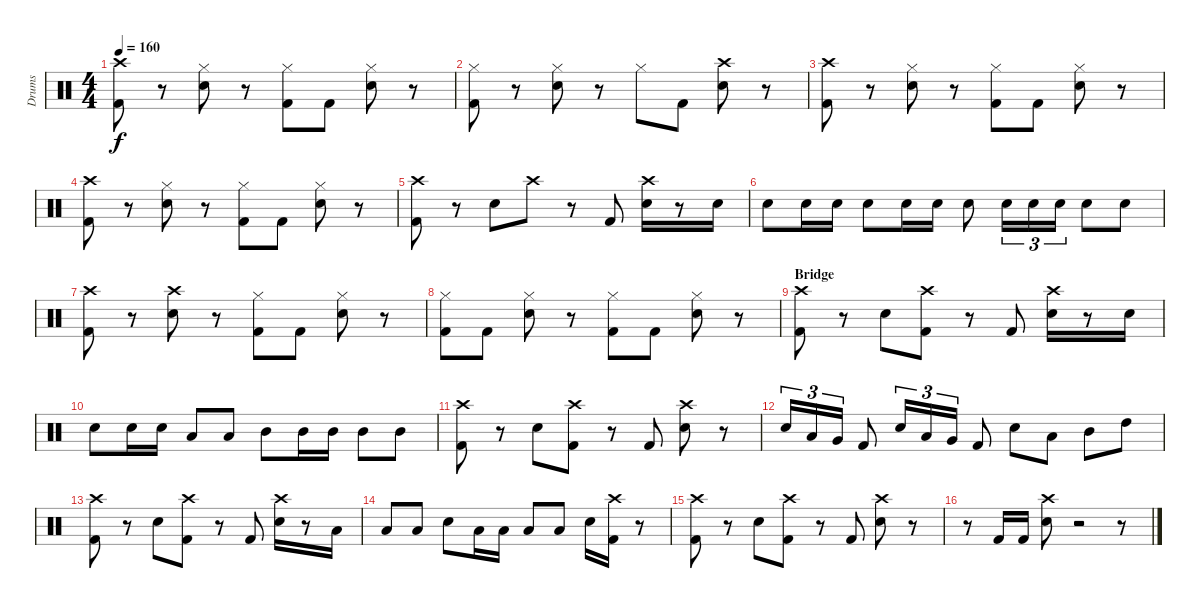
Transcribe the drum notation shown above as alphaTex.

\track ("Drums" "Drums") {instrument percussion}
\staff {score}
\articulation defaults
\ts (4 4)
\tempo 160
\clef neutral
\ks c
("Kick (hit) 2" "Crash high (hit)").8{dy f} r.8 ("Hi-Hat (closed)" "Snare (hit) 2").8 r.8 ("Hi-Hat (closed)" "Kick (hit) 2").8 "Kick (hit) 2".8 ("Snare (hit) 2" "Hi-Hat (closed)").8 r.8 |
("Kick (hit) 2" "Hi-Hat (closed)").8 r.8 ("Snare (hit) 2" "Hi-Hat (closed)").8 r.8 "Hi-Hat (closed)".8 "Kick (hit) 2".8 ("Crash high (hit)" "Snare (hit) 2").8 r.8 |
("Kick (hit) 2" "Crash high (hit)").8 r.8 ("Hi-Hat (closed)" "Snare (hit) 2").8 r.8 ("Hi-Hat (closed)" "Kick (hit) 2").8 "Kick (hit) 2".8 ("Snare (hit) 2" "Hi-Hat (closed)").8 r.8 |
("Kick (hit) 2" "Crash high (hit)").8 r.8 ("Hi-Hat (closed)" "Snare (hit) 2").8 r.8 ("Hi-Hat (closed)" "Kick (hit) 2").8 "Kick (hit) 2".8 ("Snare (hit) 2" "Hi-Hat (closed)").8 r.8 |
("Crash high (hit)" "Kick (hit) 2").8 r.8 "Snare (hit) 2".8 "Crash high (hit)".8 r.8 "Kick (hit) 2".8 ("Crash high (hit)" "Snare (hit) 2").16 r.8 "Snare (hit) 2".16 |
"Snare (hit) 2".8 "Snare (hit) 2".16 "Snare (hit) 2".16 "Snare (hit) 2".8 "Snare (hit) 2".16 "Snare (hit) 2".16 "Snare (hit) 2".8 "Snare (hit) 2".16{tu (3 2)} "Snare (hit) 2".16{tu (3 2)} "Snare (hit) 2".16{tu (3 2)} "Snare (hit) 2".8 "Snare (hit) 2".8 |
("Crash high (hit)" "Kick (hit) 2").8 r.8 ("Crash high (hit)" "Snare (hit) 2").8 r.8 ("Hi-Hat (closed)" "Kick (hit) 2").8 "Kick (hit) 2".8 ("Hi-Hat (closed)" "Snare (hit) 2").8 r.8 |
("Kick (hit) 2" "Hi-Hat (closed)").8 "Kick (hit) 2".8 ("Snare (hit) 2" "Hi-Hat (closed)").8 r.8 ("Kick (hit) 2" "Hi-Hat (closed)").8 "Kick (hit) 2".8 ("Snare (hit) 2" "Hi-Hat (closed)").8 r.8 |
\section ("" "Bridge")
("Crash high (hit)" "Kick (hit) 2").8 r.8 "Snare (hit) 2".8 ("Crash high (hit)" "Kick (hit) 2").8 r.8 "Kick (hit) 2".8 ("Crash high (hit)" "Snare (hit) 2").16 r.8 "Snare (hit) 2".16 |
"Snare (hit) 2".8 "Snare (hit) 2".16 "Snare (hit) 2".16 "Low Tom (hit)".8 "Low Tom (hit)".8 "Mid Tom (hit)".8 "Mid Tom (hit)".16 "Mid Tom (hit)".16 "Mid Tom (hit)".8 "Mid Tom (hit)".8 |
("Kick (hit) 2" "Crash high (hit)").8 r.8 "Snare (hit) 2".8 ("Crash high (hit)" "Kick (hit) 2").8 r.8 "Kick (hit) 2".8 ("Crash high (hit)" "Snare (hit) 2").8 r.8 |
"Snare (hit) 2".16{tu (3 2)} "Low Tom (hit)".16{tu (3 2)} "Very Low Tom (hit)".16{tu (3 2)} "Kick (hit) 2".8 "Snare (hit) 2".16{tu (3 2)} "Low Tom (hit)".16{tu (3 2)} "Very Low Tom (hit)".16{tu (3 2)} "Kick (hit) 2".8 "Snare (hit) 2".8 "Low Tom (hit)".8 "Mid Tom (hit)".8 "High Tom (hit)".8 |
("Kick (hit) 2" "Crash high (hit)").8 r.8 "Snare (hit) 2".8 ("Crash high (hit)" "Kick (hit) 2").8 r.8 "Kick (hit) 2".8 ("Crash high (hit)" "Snare (hit) 2").16 r.8 "Low Tom (hit)".16 |
"Low Tom (hit)".8 "Low Tom (hit)".8 "Snare (hit) 2".8 "Low Tom (hit)".16 "Low Tom (hit)".16 "Low Tom (hit)".8 "Low Tom (hit)".8 "Snare (hit) 2".16 ("Kick (hit) 2" "Crash high (hit)").16 r.8 |
("Crash high (hit)" "Kick (hit) 2").8 r.8 "Snare (hit) 2".8 ("Crash high (hit)" "Kick (hit) 2").8 r.8 "Kick (hit) 2".8 ("Snare (hit) 2" "Crash high (hit)").8 r.8 |
r.8 "Kick (hit) 2".16 "Kick (hit) 2".16 ("Crash high (hit)" "Snare (hit) 2").8 r.2 r.8
